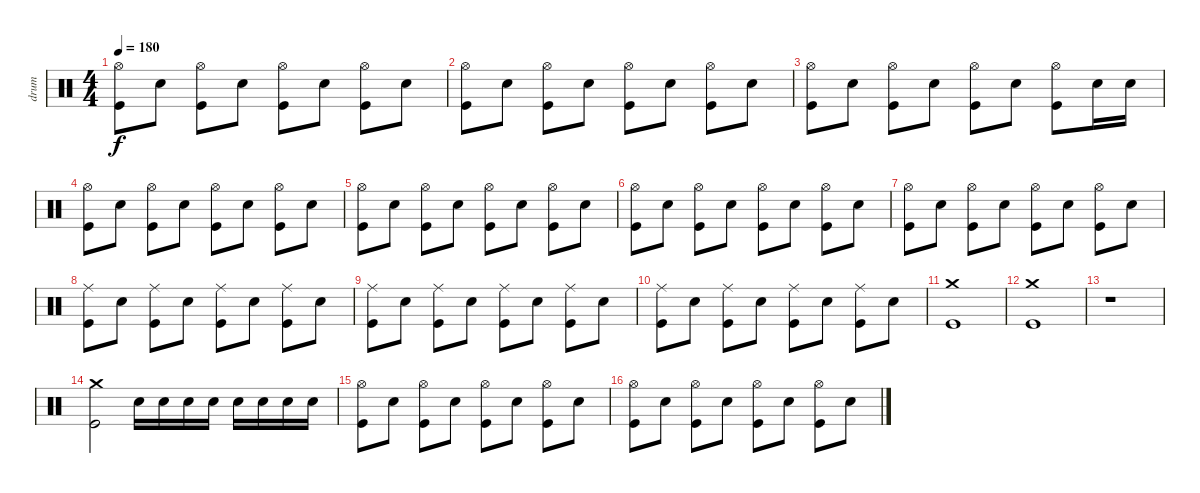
\track ("drum" "drum") {instrument percussion}
\staff {score}
\articulation defaults
\ts (4 4)
\tempo 180
\clef neutral
\ks c
("Hi-Hat (open)" "Kick (hit)").8{dy f} "Snare (hit) 2".8 ("Hi-Hat (open)" "Kick (hit)").8 "Snare (hit) 2".8 ("Hi-Hat (open)" "Kick (hit)").8 "Snare (hit) 2".8 ("Hi-Hat (open)" "Kick (hit)").8 "Snare (hit) 2".8 |
("Hi-Hat (open)" "Kick (hit)").8 "Snare (hit) 2".8 ("Hi-Hat (open)" "Kick (hit)").8 "Snare (hit) 2".8 ("Hi-Hat (open)" "Kick (hit)").8 "Snare (hit) 2".8 ("Hi-Hat (open)" "Kick (hit)").8 "Snare (hit) 2".8 |
("Hi-Hat (open)" "Kick (hit)").8 "Snare (hit) 2".8 ("Hi-Hat (open)" "Kick (hit)").8 "Snare (hit) 2".8 ("Hi-Hat (open)" "Kick (hit)").8 "Snare (hit) 2".8 ("Hi-Hat (open)" "Kick (hit)").8 "Snare (hit) 2".16 "Snare (hit) 2".16 |
("Hi-Hat (open)" "Kick (hit)").8 "Snare (hit) 2".8 ("Hi-Hat (open)" "Kick (hit)").8 "Snare (hit) 2".8 ("Hi-Hat (open)" "Kick (hit)").8 "Snare (hit) 2".8 ("Hi-Hat (open)" "Kick (hit)").8 "Snare (hit) 2".8 |
("Hi-Hat (open)" "Kick (hit)").8 "Snare (hit) 2".8 ("Hi-Hat (open)" "Kick (hit)").8 "Snare (hit) 2".8 ("Hi-Hat (open)" "Kick (hit)").8 "Snare (hit) 2".8 ("Hi-Hat (open)" "Kick (hit)").8 "Snare (hit) 2".8 |
("Hi-Hat (open)" "Kick (hit)").8 "Snare (hit) 2".8 ("Hi-Hat (open)" "Kick (hit)").8 "Snare (hit) 2".8 ("Hi-Hat (open)" "Kick (hit)").8 "Snare (hit) 2".8 ("Hi-Hat (open)" "Kick (hit)").8 "Snare (hit) 2".8 |
("Hi-Hat (open)" "Kick (hit)").8 "Snare (hit) 2".8 ("Hi-Hat (open)" "Kick (hit)").8 "Snare (hit) 2".8 ("Hi-Hat (open)" "Kick (hit)").8 "Snare (hit) 2".8 ("Hi-Hat (open)" "Kick (hit)").8 "Snare (hit) 2".8 |
("Ride (middle)" "Kick (hit)").8 "Snare (hit) 2".8 ("Ride (middle)" "Kick (hit)").8 "Snare (hit) 2".8 ("Ride (middle)" "Kick (hit)").8 "Snare (hit) 2".8 ("Ride (middle)" "Kick (hit)").8 "Snare (hit) 2".8 |
("Ride (middle)" "Kick (hit)").8 "Snare (hit) 2".8 ("Ride (middle)" "Kick (hit)").8 "Snare (hit) 2".8 ("Ride (middle)" "Kick (hit)").8 "Snare (hit) 2".8 ("Ride (middle)" "Kick (hit)").8 "Snare (hit) 2".8 |
("Ride (middle)" "Kick (hit)").8 "Snare (hit) 2".8 ("Ride (middle)" "Kick (hit)").8 "Snare (hit) 2".8 ("Ride (middle)" "Kick (hit)").8 "Snare (hit) 2".8 ("Ride (middle)" "Kick (hit)").8 "Snare (hit) 2".8 |
("Crash medium (hit)" "Kick (hit)").1 |
("Crash medium (hit)" "Kick (hit)").1 |
r.1 |
("Crash medium (hit)" "Kick (hit)").2 "Snare (hit) 2".16 "Snare (hit) 2".16 "Snare (hit) 2".16 "Snare (hit) 2".16 "Snare (hit) 2".16 "Snare (hit) 2".16 "Snare (hit) 2".16 "Snare (hit) 2".16 |
("Hi-Hat (open)" "Kick (hit)").8 "Snare (hit) 2".8 ("Hi-Hat (open)" "Kick (hit)").8 "Snare (hit) 2".8 ("Hi-Hat (open)" "Kick (hit)").8 "Snare (hit) 2".8 ("Hi-Hat (open)" "Kick (hit)").8 "Snare (hit) 2".8 |
("Hi-Hat (open)" "Kick (hit)").8 "Snare (hit) 2".8 ("Hi-Hat (open)" "Kick (hit)").8 "Snare (hit) 2".8 ("Hi-Hat (open)" "Kick (hit)").8 "Snare (hit) 2".8 ("Hi-Hat (open)" "Kick (hit)").8 "Snare (hit) 2".8
